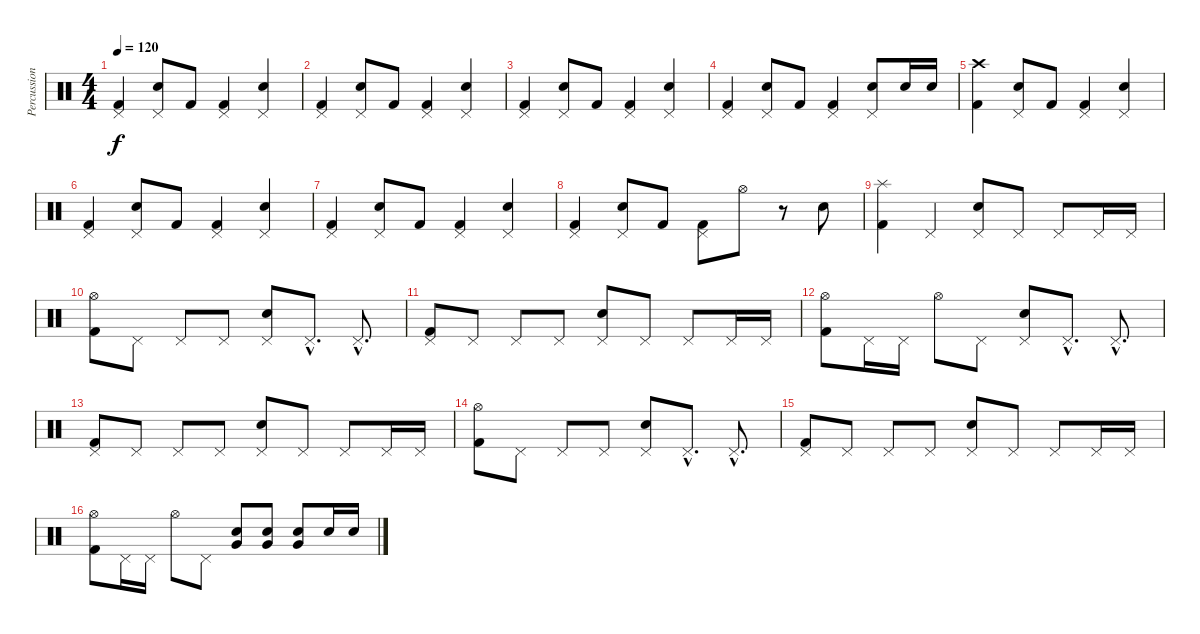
\track ("Percussion" "Percussion") {instrument percussion}
\staff {score}
\articulation defaults
\ts (4 4)
\tempo 120
\clef neutral
\ks c
("Kick (hit) 2" "Pedal Hi-Hat (hit)").4{dy f} ("Electric Snare (hit)" "Pedal Hi-Hat (hit)").8 "Kick (hit) 2".8 ("Kick (hit) 2" "Pedal Hi-Hat (hit)").4 ("Electric Snare (hit)" "Pedal Hi-Hat (hit)").4 |
("Kick (hit) 2" "Pedal Hi-Hat (hit)").4 ("Electric Snare (hit)" "Pedal Hi-Hat (hit)").8 "Kick (hit) 2".8 ("Kick (hit) 2" "Pedal Hi-Hat (hit)").4 ("Electric Snare (hit)" "Pedal Hi-Hat (hit)").4 |
("Kick (hit) 2" "Pedal Hi-Hat (hit)").4 ("Electric Snare (hit)" "Pedal Hi-Hat (hit)").8 "Kick (hit) 2".8 ("Kick (hit) 2" "Pedal Hi-Hat (hit)").4 ("Electric Snare (hit)" "Pedal Hi-Hat (hit)").4 |
("Kick (hit) 2" "Pedal Hi-Hat (hit)").4 ("Electric Snare (hit)" "Pedal Hi-Hat (hit)").8 "Kick (hit) 2".8 ("Kick (hit) 2" "Pedal Hi-Hat (hit)").4 ("Electric Snare (hit)" "Pedal Hi-Hat (hit)").8 "Electric Snare (hit)".16 "Electric Snare (hit)".16 |
("Kick (hit) 2" "Crash high (hit)").4 ("Electric Snare (hit)" "Pedal Hi-Hat (hit)").8 "Kick (hit) 2".8 ("Kick (hit) 2" "Pedal Hi-Hat (hit)").4 ("Electric Snare (hit)" "Pedal Hi-Hat (hit)").4 |
("Kick (hit) 2" "Pedal Hi-Hat (hit)").4 ("Electric Snare (hit)" "Pedal Hi-Hat (hit)").8 "Kick (hit) 2".8 ("Kick (hit) 2" "Pedal Hi-Hat (hit)").4 ("Electric Snare (hit)" "Pedal Hi-Hat (hit)").4 |
("Kick (hit) 2" "Pedal Hi-Hat (hit)").4 ("Electric Snare (hit)" "Pedal Hi-Hat (hit)").8 "Kick (hit) 2".8 ("Kick (hit) 2" "Pedal Hi-Hat (hit)").4 ("Electric Snare (hit)" "Pedal Hi-Hat (hit)").4 |
("Kick (hit) 2" "Pedal Hi-Hat (hit)").4 ("Electric Snare (hit)" "Pedal Hi-Hat (hit)").8 "Kick (hit) 2".8 ("Kick (hit) 2" "Pedal Hi-Hat (hit)").8 "Hi-Hat (open)".8 r.8 "Electric Snare (hit)".8 |
("Kick (hit) 2" "Splash (hit)").4 "Pedal Hi-Hat (hit)".4 ("Electric Snare (hit)" "Pedal Hi-Hat (hit)").8 "Pedal Hi-Hat (hit)".8 "Pedal Hi-Hat (hit)".8 "Pedal Hi-Hat (hit)".16 "Pedal Hi-Hat (hit)".16 |
("Kick (hit) 2" "Hi-Hat (open)").8 "Pedal Hi-Hat (hit)".8 "Pedal Hi-Hat (hit)".8 "Pedal Hi-Hat (hit)".8 ("Electric Snare (hit)" "Pedal Hi-Hat (hit)").8 "Pedal Hi-Hat (hit)"{hac}.8{d} "Pedal Hi-Hat (hit)"{hac}.8{d} |
("Kick (hit) 2" "Pedal Hi-Hat (hit)").8 "Pedal Hi-Hat (hit)".8 "Pedal Hi-Hat (hit)".8 "Pedal Hi-Hat (hit)".8 ("Electric Snare (hit)" "Pedal Hi-Hat (hit)").8 "Pedal Hi-Hat (hit)".8 "Pedal Hi-Hat (hit)".8 "Pedal Hi-Hat (hit)".16 "Pedal Hi-Hat (hit)".16 |
("Kick (hit) 2" "Hi-Hat (open)").8 "Pedal Hi-Hat (hit)".16 "Pedal Hi-Hat (hit)".16 "Hi-Hat (open)".8 "Pedal Hi-Hat (hit)".8 ("Electric Snare (hit)" "Pedal Hi-Hat (hit)").8 "Pedal Hi-Hat (hit)"{hac}.8{d} "Pedal Hi-Hat (hit)"{hac}.8{d} |
("Kick (hit) 2" "Pedal Hi-Hat (hit)").8 "Pedal Hi-Hat (hit)".8 "Pedal Hi-Hat (hit)".8 "Pedal Hi-Hat (hit)".8 ("Electric Snare (hit)" "Pedal Hi-Hat (hit)").8 "Pedal Hi-Hat (hit)".8 "Pedal Hi-Hat (hit)".8 "Pedal Hi-Hat (hit)".16 "Pedal Hi-Hat (hit)".16 |
("Kick (hit) 2" "Hi-Hat (open)").8 "Pedal Hi-Hat (hit)".8 "Pedal Hi-Hat (hit)".8 "Pedal Hi-Hat (hit)".8 ("Electric Snare (hit)" "Pedal Hi-Hat (hit)").8 "Pedal Hi-Hat (hit)"{hac}.8{d} "Pedal Hi-Hat (hit)"{hac}.8{d} |
("Kick (hit) 2" "Pedal Hi-Hat (hit)").8 "Pedal Hi-Hat (hit)".8 "Pedal Hi-Hat (hit)".8 "Pedal Hi-Hat (hit)".8 ("Electric Snare (hit)" "Pedal Hi-Hat (hit)").8 "Pedal Hi-Hat (hit)".8 "Pedal Hi-Hat (hit)".8 "Pedal Hi-Hat (hit)".16 "Pedal Hi-Hat (hit)".16 |
("Kick (hit) 2" "Hi-Hat (open)").8 "Pedal Hi-Hat (hit)".16 "Pedal Hi-Hat (hit)".16 "Hi-Hat (open)".8 "Pedal Hi-Hat (hit)".8 ("Electric Snare (hit)" "Very Low Tom (hit)").8 ("Electric Snare (hit)" "Very Low Tom (hit)").8 ("Electric Snare (hit)" "Very Low Tom (hit)").8 "Electric Snare (hit)".16 "Electric Snare (hit)".16
